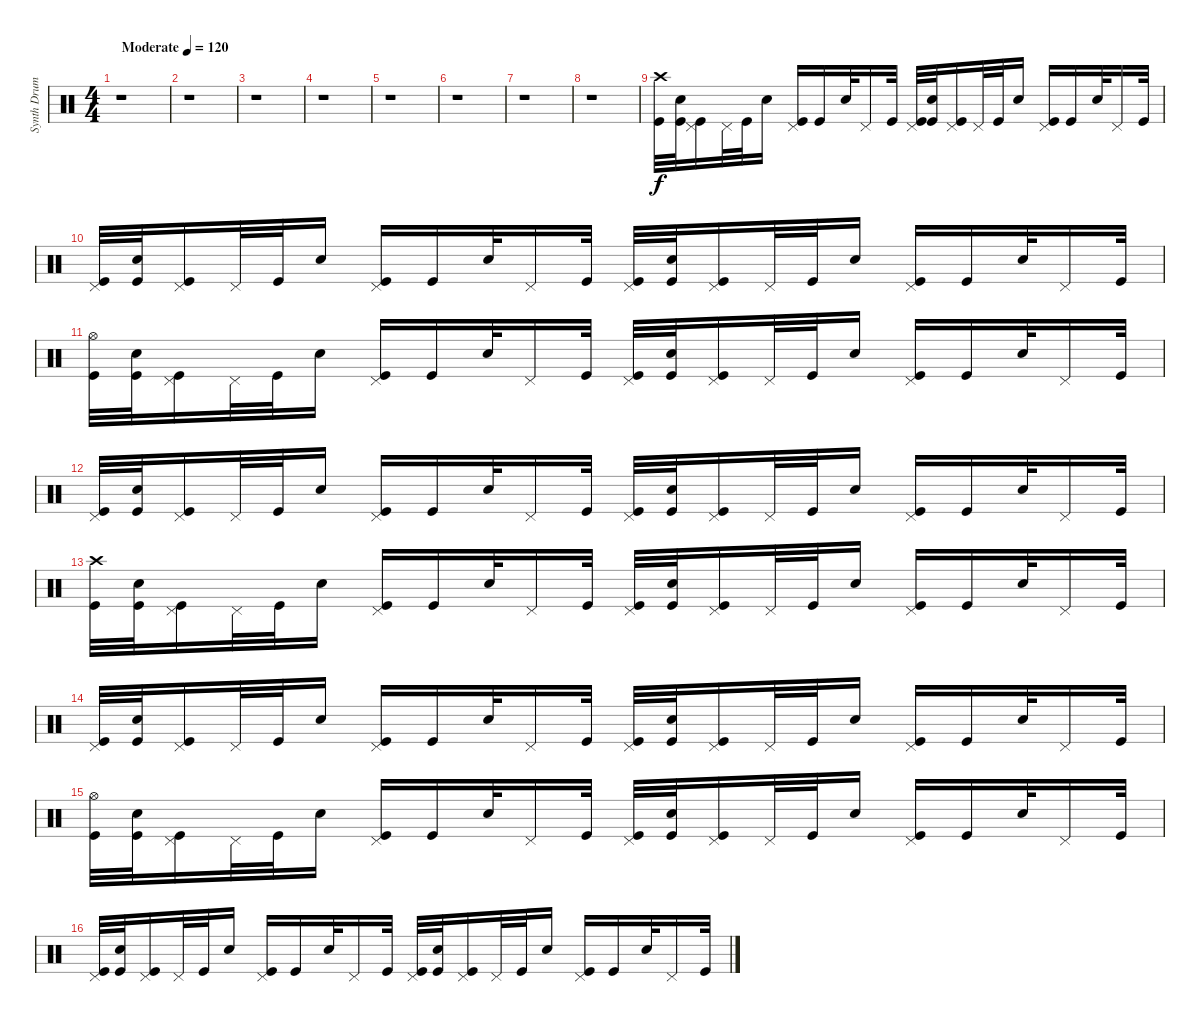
\track ("Synth Drums" "Synth Drum") {instrument percussion}
\staff {score}
\articulation defaults
\ts (4 4)
\tempo (120 "Moderate")
\tempo 60
\tempo (120 "Moderate")
\clef neutral
\ks c
r.1{dy f} |
r.1 |
r.1 |
r.1 |
r.1 |
r.1 |
r.1 |
r.1 |
("Crash high (hit)" "Kick (hit)").32 ("Snare (hit) 2" "Kick (hit)").32 ("Pedal Hi-Hat (hit)" "Kick (hit)").16 "Pedal Hi-Hat (hit)".32 "Kick (hit)".32 "Snare (hit) 2".16 ("Pedal Hi-Hat (hit)" "Kick (hit)").16 "Kick (hit)".16 "Snare (hit) 2".32 "Pedal Hi-Hat (hit)".16 "Kick (hit)".32 ("Pedal Hi-Hat (hit)" "Kick (hit)").32 ("Snare (hit) 2" "Kick (hit)").32 ("Pedal Hi-Hat (hit)" "Kick (hit)").16 "Pedal Hi-Hat (hit)".32 "Kick (hit)".32 "Snare (hit) 2".16 ("Pedal Hi-Hat (hit)" "Kick (hit)").16 "Kick (hit)".16 "Snare (hit) 2".32 "Pedal Hi-Hat (hit)".16 "Kick (hit)".32 |
("Pedal Hi-Hat (hit)" "Kick (hit)").32 ("Snare (hit) 2" "Kick (hit)").32 ("Pedal Hi-Hat (hit)" "Kick (hit)").16 "Pedal Hi-Hat (hit)".32 "Kick (hit)".32 "Snare (hit) 2".16 ("Pedal Hi-Hat (hit)" "Kick (hit)").16 "Kick (hit)".16 "Snare (hit) 2".32 "Pedal Hi-Hat (hit)".16 "Kick (hit)".32 ("Pedal Hi-Hat (hit)" "Kick (hit)").32 ("Snare (hit) 2" "Kick (hit)").32 ("Pedal Hi-Hat (hit)" "Kick (hit)").16 "Pedal Hi-Hat (hit)".32 "Kick (hit)".32 "Snare (hit) 2".16 ("Pedal Hi-Hat (hit)" "Kick (hit)").16 "Kick (hit)".16 "Snare (hit) 2".32 "Pedal Hi-Hat (hit)".16 "Kick (hit)".32 |
("Hi-Hat (open)" "Kick (hit)").32 ("Snare (hit) 2" "Kick (hit)").32 ("Pedal Hi-Hat (hit)" "Kick (hit)").16 "Pedal Hi-Hat (hit)".32 "Kick (hit)".32 "Snare (hit) 2".16 ("Pedal Hi-Hat (hit)" "Kick (hit)").16 "Kick (hit)".16 "Snare (hit) 2".32 "Pedal Hi-Hat (hit)".16 "Kick (hit)".32 ("Pedal Hi-Hat (hit)" "Kick (hit)").32 ("Snare (hit) 2" "Kick (hit)").32 ("Pedal Hi-Hat (hit)" "Kick (hit)").16 "Pedal Hi-Hat (hit)".32 "Kick (hit)".32 "Snare (hit) 2".16 ("Pedal Hi-Hat (hit)" "Kick (hit)").16 "Kick (hit)".16 "Snare (hit) 2".32 "Pedal Hi-Hat (hit)".16 "Kick (hit)".32 |
("Pedal Hi-Hat (hit)" "Kick (hit)").32 ("Snare (hit) 2" "Kick (hit)").32 ("Pedal Hi-Hat (hit)" "Kick (hit)").16 "Pedal Hi-Hat (hit)".32 "Kick (hit)".32 "Snare (hit) 2".16 ("Pedal Hi-Hat (hit)" "Kick (hit)").16 "Kick (hit)".16 "Snare (hit) 2".32 "Pedal Hi-Hat (hit)".16 "Kick (hit)".32 ("Pedal Hi-Hat (hit)" "Kick (hit)").32 ("Snare (hit) 2" "Kick (hit)").32 ("Pedal Hi-Hat (hit)" "Kick (hit)").16 "Pedal Hi-Hat (hit)".32 "Kick (hit)".32 "Snare (hit) 2".16 ("Pedal Hi-Hat (hit)" "Kick (hit)").16 "Kick (hit)".16 "Snare (hit) 2".32 "Pedal Hi-Hat (hit)".16 "Kick (hit)".32 |
("Crash high (hit)" "Kick (hit)").32 ("Snare (hit) 2" "Kick (hit)").32 ("Pedal Hi-Hat (hit)" "Kick (hit)").16 "Pedal Hi-Hat (hit)".32 "Kick (hit)".32 "Snare (hit) 2".16 ("Pedal Hi-Hat (hit)" "Kick (hit)").16 "Kick (hit)".16 "Snare (hit) 2".32 "Pedal Hi-Hat (hit)".16 "Kick (hit)".32 ("Pedal Hi-Hat (hit)" "Kick (hit)").32 ("Snare (hit) 2" "Kick (hit)").32 ("Pedal Hi-Hat (hit)" "Kick (hit)").16 "Pedal Hi-Hat (hit)".32 "Kick (hit)".32 "Snare (hit) 2".16 ("Pedal Hi-Hat (hit)" "Kick (hit)").16 "Kick (hit)".16 "Snare (hit) 2".32 "Pedal Hi-Hat (hit)".16 "Kick (hit)".32 |
("Pedal Hi-Hat (hit)" "Kick (hit)").32 ("Snare (hit) 2" "Kick (hit)").32 ("Pedal Hi-Hat (hit)" "Kick (hit)").16 "Pedal Hi-Hat (hit)".32 "Kick (hit)".32 "Snare (hit) 2".16 ("Pedal Hi-Hat (hit)" "Kick (hit)").16 "Kick (hit)".16 "Snare (hit) 2".32 "Pedal Hi-Hat (hit)".16 "Kick (hit)".32 ("Pedal Hi-Hat (hit)" "Kick (hit)").32 ("Snare (hit) 2" "Kick (hit)").32 ("Pedal Hi-Hat (hit)" "Kick (hit)").16 "Pedal Hi-Hat (hit)".32 "Kick (hit)".32 "Snare (hit) 2".16 ("Pedal Hi-Hat (hit)" "Kick (hit)").16 "Kick (hit)".16 "Snare (hit) 2".32 "Pedal Hi-Hat (hit)".16 "Kick (hit)".32 |
("Hi-Hat (open)" "Kick (hit)").32 ("Snare (hit) 2" "Kick (hit)").32 ("Pedal Hi-Hat (hit)" "Kick (hit)").16 "Pedal Hi-Hat (hit)".32 "Kick (hit)".32 "Snare (hit) 2".16 ("Pedal Hi-Hat (hit)" "Kick (hit)").16 "Kick (hit)".16 "Snare (hit) 2".32 "Pedal Hi-Hat (hit)".16 "Kick (hit)".32 ("Pedal Hi-Hat (hit)" "Kick (hit)").32 ("Snare (hit) 2" "Kick (hit)").32 ("Pedal Hi-Hat (hit)" "Kick (hit)").16 "Pedal Hi-Hat (hit)".32 "Kick (hit)".32 "Snare (hit) 2".16 ("Pedal Hi-Hat (hit)" "Kick (hit)").16 "Kick (hit)".16 "Snare (hit) 2".32 "Pedal Hi-Hat (hit)".16 "Kick (hit)".32 |
("Pedal Hi-Hat (hit)" "Kick (hit)").32 ("Snare (hit) 2" "Kick (hit)").32 ("Pedal Hi-Hat (hit)" "Kick (hit)").16 "Pedal Hi-Hat (hit)".32 "Kick (hit)".32 "Snare (hit) 2".16 ("Pedal Hi-Hat (hit)" "Kick (hit)").16 "Kick (hit)".16 "Snare (hit) 2".32 "Pedal Hi-Hat (hit)".16 "Kick (hit)".32 ("Pedal Hi-Hat (hit)" "Kick (hit)").32 ("Snare (hit) 2" "Kick (hit)").32 ("Pedal Hi-Hat (hit)" "Kick (hit)").16 "Pedal Hi-Hat (hit)".32 "Kick (hit)".32 "Snare (hit) 2".16 ("Pedal Hi-Hat (hit)" "Kick (hit)").16 "Kick (hit)".16 "Snare (hit) 2".32 "Pedal Hi-Hat (hit)".16 "Kick (hit)".32
